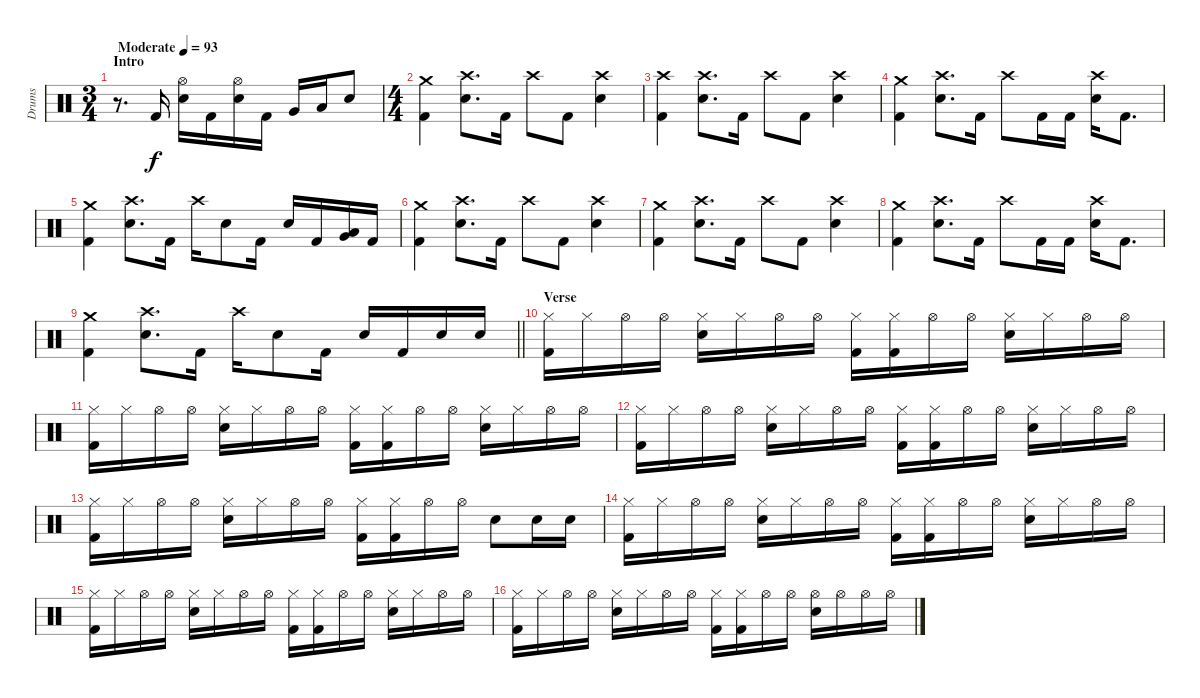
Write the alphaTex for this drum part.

\track ("Drums" "Drums") {instrument percussion}
\staff {score}
\articulation defaults
\ts (3 4)
\section ("" "Intro")
\tempo (93 "Moderate")
\clef neutral
\ks c
r.8{d dy f} "Kick (hit) 2".16 ("Hi-Hat (open)" "Electric Snare (hit)").16 "Kick (hit) 2".16 ("Hi-Hat (open)" "Electric Snare (hit)").16 "Kick (hit) 2".16 "Very Low Tom (hit)".16 "Low Floor Tom (hit)".16 "Electric Snare (hit)".8 |
\ts (4 4)
("Crash medium (hit)" "Kick (hit) 2").4 ("Crash high (hit)" "Electric Snare (hit)").8{d} "Kick (hit) 2".16 "Crash high (hit)".8 "Kick (hit) 2".8 ("Crash high (hit)" "Electric Snare (hit)").4 |
("Crash high (hit)" "Kick (hit) 2").4 ("Crash high (hit)" "Electric Snare (hit)").8{d} "Kick (hit) 2".16 "Crash high (hit)".8 "Kick (hit) 2".8 ("Crash high (hit)" "Electric Snare (hit)").4 |
("Crash medium (hit)" "Kick (hit) 2").4 ("Crash high (hit)" "Electric Snare (hit)").8{d} "Kick (hit) 2".16 "Crash high (hit)".8 "Kick (hit) 2".16 "Kick (hit) 2".16 ("Crash high (hit)" "Electric Snare (hit)").16 "Kick (hit) 2".8{d} |
("Crash medium (hit)" "Kick (hit) 2").4 ("Crash high (hit)" "Electric Snare (hit)").8{d} "Kick (hit) 2".16 "Crash high (hit)".16 "Electric Snare (hit)".8 "Kick (hit) 2".16 "Electric Snare (hit)".16 "Kick (hit) 2".16 ("Very Low Tom (hit)" "Low Floor Tom (hit)").16 "Kick (hit) 2".16 |
("Crash medium (hit)" "Kick (hit) 2").4 ("Crash high (hit)" "Electric Snare (hit)").8{d} "Kick (hit) 2".16 "Crash high (hit)".8 "Kick (hit) 2".8 ("Crash high (hit)" "Electric Snare (hit)").4 |
("Crash medium (hit)" "Kick (hit) 2").4 ("Crash high (hit)" "Electric Snare (hit)").8{d} "Kick (hit) 2".16 "Crash high (hit)".8 "Kick (hit) 2".8 ("Crash high (hit)" "Electric Snare (hit)").4 |
("Crash medium (hit)" "Kick (hit) 2").4 ("Crash high (hit)" "Electric Snare (hit)").8{d} "Kick (hit) 2".16 "Crash high (hit)".8 "Kick (hit) 2".16 "Kick (hit) 2".16 ("Crash high (hit)" "Electric Snare (hit)").16 "Kick (hit) 2".8{d} |
\barLineRight lightlight
("Crash medium (hit)" "Kick (hit) 2").4 ("Crash high (hit)" "Electric Snare (hit)").8{d} "Kick (hit) 2".16 "Crash high (hit)".16 "Electric Snare (hit)".8 "Kick (hit) 2".16 "Electric Snare (hit)".16 "Kick (hit) 2".16 "Electric Snare (hit)".16 "Electric Snare (hit)".16 |
\section ("" "Verse")
("Hi-Hat (closed)" "Kick (hit) 2").16 "Hi-Hat (closed)".16 "Hi-Hat (open)".16 "Hi-Hat (open)".16 ("Hi-Hat (closed)" "Electric Snare (hit)").16 "Hi-Hat (closed)".16 "Hi-Hat (open)".16 "Hi-Hat (open)".16 ("Hi-Hat (closed)" "Kick (hit) 2").16 ("Hi-Hat (closed)" "Kick (hit) 2").16 "Hi-Hat (open)".16 "Hi-Hat (open)".16 ("Hi-Hat (closed)" "Electric Snare (hit)").16 "Hi-Hat (closed)".16 "Hi-Hat (open)".16 "Hi-Hat (open)".16 |
("Hi-Hat (closed)" "Kick (hit) 2").16 "Hi-Hat (closed)".16 "Hi-Hat (open)".16 "Hi-Hat (open)".16 ("Hi-Hat (closed)" "Electric Snare (hit)").16 "Hi-Hat (closed)".16 "Hi-Hat (open)".16 "Hi-Hat (open)".16 ("Hi-Hat (closed)" "Kick (hit) 2").16 ("Hi-Hat (closed)" "Kick (hit) 2").16 "Hi-Hat (open)".16 "Hi-Hat (open)".16 ("Hi-Hat (closed)" "Electric Snare (hit)").16 "Hi-Hat (closed)".16 "Hi-Hat (open)".16 "Hi-Hat (open)".16 |
("Hi-Hat (closed)" "Kick (hit) 2").16 "Hi-Hat (closed)".16 "Hi-Hat (open)".16 "Hi-Hat (open)".16 ("Hi-Hat (closed)" "Electric Snare (hit)").16 "Hi-Hat (closed)".16 "Hi-Hat (open)".16 "Hi-Hat (open)".16 ("Hi-Hat (closed)" "Kick (hit) 2").16 ("Hi-Hat (closed)" "Kick (hit) 2").16 "Hi-Hat (open)".16 "Hi-Hat (open)".16 ("Hi-Hat (closed)" "Electric Snare (hit)").16 "Hi-Hat (closed)".16 "Hi-Hat (open)".16 "Hi-Hat (open)".16 |
("Hi-Hat (closed)" "Kick (hit) 2").16 "Hi-Hat (closed)".16 "Hi-Hat (open)".16 "Hi-Hat (open)".16 ("Hi-Hat (closed)" "Electric Snare (hit)").16 "Hi-Hat (closed)".16 "Hi-Hat (open)".16 "Hi-Hat (open)".16 ("Hi-Hat (closed)" "Kick (hit) 2").16 ("Hi-Hat (closed)" "Kick (hit) 2").16 "Hi-Hat (open)".16 "Hi-Hat (open)".16 "Electric Snare (hit)".8 "Electric Snare (hit)".16 "Electric Snare (hit)".16 |
("Hi-Hat (closed)" "Kick (hit) 2").16 "Hi-Hat (closed)".16 "Hi-Hat (open)".16 "Hi-Hat (open)".16 ("Hi-Hat (closed)" "Electric Snare (hit)").16 "Hi-Hat (closed)".16 "Hi-Hat (open)".16 "Hi-Hat (open)".16 ("Hi-Hat (closed)" "Kick (hit) 2").16 ("Hi-Hat (closed)" "Kick (hit) 2").16 "Hi-Hat (open)".16 "Hi-Hat (open)".16 ("Hi-Hat (closed)" "Electric Snare (hit)").16 "Hi-Hat (closed)".16 "Hi-Hat (open)".16 "Hi-Hat (open)".16 |
("Hi-Hat (closed)" "Kick (hit) 2").16 "Hi-Hat (closed)".16 "Hi-Hat (open)".16 "Hi-Hat (open)".16 ("Hi-Hat (closed)" "Electric Snare (hit)").16 "Hi-Hat (closed)".16 "Hi-Hat (open)".16 "Hi-Hat (open)".16 ("Hi-Hat (closed)" "Kick (hit) 2").16 ("Hi-Hat (closed)" "Kick (hit) 2").16 "Hi-Hat (open)".16 "Hi-Hat (open)".16 ("Hi-Hat (closed)" "Electric Snare (hit)").16 "Hi-Hat (closed)".16 "Hi-Hat (open)".16 "Hi-Hat (open)".16 |
("Hi-Hat (closed)" "Kick (hit) 2").16 "Hi-Hat (closed)".16 "Hi-Hat (open)".16 "Hi-Hat (open)".16 ("Hi-Hat (closed)" "Electric Snare (hit)").16 "Hi-Hat (closed)".16 "Hi-Hat (open)".16 "Hi-Hat (open)".16 ("Hi-Hat (closed)" "Kick (hit) 2").16 ("Hi-Hat (closed)" "Kick (hit) 2").16 "Hi-Hat (open)".16 "Hi-Hat (open)".16 ("Hi-Hat (open)" "Electric Snare (hit)").16 "Hi-Hat (open)".16 "Hi-Hat (open)".16 "Hi-Hat (open)".16
